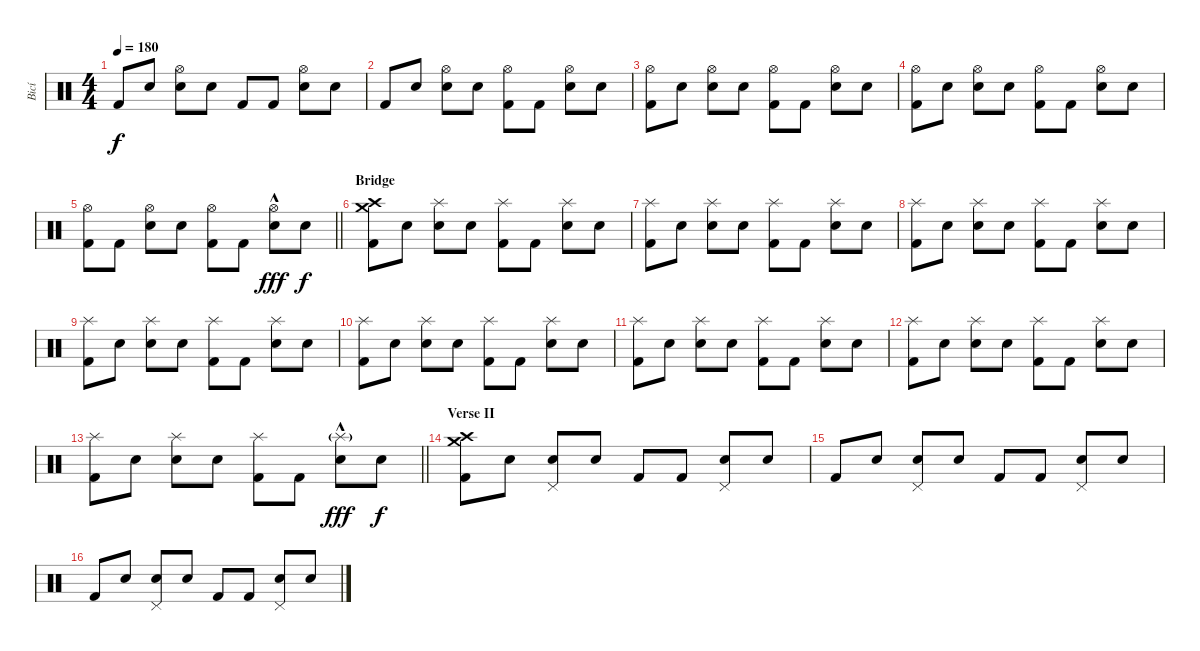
\track ("Bicí" "Bicí") {instrument percussion}
\staff {score}
\articulation defaults
\ts (4 4)
\tempo 180
\clef neutral
\ks c "Kick (hit) 2".8{dy f} "Snare (hit)".8
("Hi-Hat (open)" "Electric Snare (hit)").8 "Snare (hit)".8 "Kick (hit) 2".8 "Kick (hit) 2".8 ("Hi-Hat (open)" "Electric Snare (hit)").8 "Snare (hit)".8 |
"Kick (hit) 2".8 "Snare (hit)".8 ("Hi-Hat (open)" "Electric Snare (hit)").8 "Snare (hit)".8 ("Hi-Hat (open)" "Kick (hit) 2").8 "Kick (hit) 2".8 ("Hi-Hat (open)" "Electric Snare (hit)").8 "Snare (hit)".8 |
("Hi-Hat (open)" "Kick (hit) 2").8 "Snare (hit)".8 ("Hi-Hat (open)" "Electric Snare (hit)").8 "Snare (hit)".8 ("Hi-Hat (open)" "Kick (hit) 2").8 "Kick (hit) 2".8 ("Hi-Hat (open)" "Electric Snare (hit)").8 "Snare (hit)".8 |
("Hi-Hat (open)" "Kick (hit) 2").8 "Snare (hit)".8 ("Hi-Hat (open)" "Electric Snare (hit)").8 "Snare (hit)".8 ("Hi-Hat (open)" "Kick (hit) 2").8 "Kick (hit) 2".8 ("Hi-Hat (open)" "Electric Snare (hit)").8 "Snare (hit)".8 |
\barLineRight lightlight
("Hi-Hat (open)" "Kick (hit) 2").8 "Kick (hit) 2".8 ("Hi-Hat (open)" "Electric Snare (hit)").8 "Snare (hit)".8 ("Hi-Hat (open)" "Kick (hit) 2").8 "Kick (hit) 2".8 ("Hi-Hat (open)" "Electric Snare (hit)"{hac}).8{dy fff} "Snare (hit)".8{dy f} |
\section ("" "Bridge")
("Crash high (hit)" "Crash medium (hit)" "Kick (hit) 2").8 "Snare (hit)".8 ("Splash (hit)" "Electric Snare (hit)").8 "Snare (hit)".8 ("Splash (hit)" "Kick (hit) 2").8 "Kick (hit) 2".8 ("Splash (hit)" "Electric Snare (hit)").8 "Snare (hit)".8 |
("Splash (hit)" "Kick (hit) 2").8 "Snare (hit)".8 ("Splash (hit)" "Electric Snare (hit)").8 "Snare (hit)".8 ("Splash (hit)" "Kick (hit) 2").8 "Kick (hit) 2".8 ("Splash (hit)" "Electric Snare (hit)").8 "Snare (hit)".8 |
("Splash (hit)" "Kick (hit) 2").8 "Snare (hit)".8 ("Splash (hit)" "Electric Snare (hit)").8 "Snare (hit)".8 ("Splash (hit)" "Kick (hit) 2").8 "Kick (hit) 2".8 ("Splash (hit)" "Electric Snare (hit)").8 "Snare (hit)".8 |
("Splash (hit)" "Kick (hit) 2").8 "Snare (hit)".8 ("Splash (hit)" "Electric Snare (hit)").8 "Snare (hit)".8 ("Splash (hit)" "Kick (hit) 2").8 "Kick (hit) 2".8 ("Splash (hit)" "Electric Snare (hit)").8 "Snare (hit)".8 |
("Splash (hit)" "Kick (hit) 2").8 "Snare (hit)".8 ("Splash (hit)" "Electric Snare (hit)").8 "Snare (hit)".8 ("Splash (hit)" "Kick (hit) 2").8 "Kick (hit) 2".8 ("Splash (hit)" "Electric Snare (hit)").8 "Snare (hit)".8 |
("Splash (hit)" "Kick (hit) 2").8 "Snare (hit)".8 ("Splash (hit)" "Electric Snare (hit)").8 "Snare (hit)".8 ("Splash (hit)" "Kick (hit) 2").8 "Kick (hit) 2".8 ("Splash (hit)" "Electric Snare (hit)").8 "Snare (hit)".8 |
("Splash (hit)" "Kick (hit) 2").8 "Snare (hit)".8 ("Splash (hit)" "Electric Snare (hit)").8 "Snare (hit)".8 ("Splash (hit)" "Kick (hit) 2").8 "Kick (hit) 2".8 ("Splash (hit)" "Electric Snare (hit)").8 "Snare (hit)".8 |
\barLineRight lightlight
("Splash (hit)" "Kick (hit) 2").8 "Snare (hit)".8 ("Splash (hit)" "Electric Snare (hit)").8 "Snare (hit)".8 ("Splash (hit)" "Kick (hit) 2").8 "Kick (hit) 2".8 ("Splash (hit)"{g} "Electric Snare (hit)"{hac}).8{dy fff} "Snare (hit)".8{dy f} |
\section ("" "Verse II")
("Crash medium (hit)" "Crash high (hit)" "Kick (hit) 2").8 "Snare (hit)".8 ("Pedal Hi-Hat (hit)" "Electric Snare (hit)").8 "Snare (hit)".8 "Kick (hit) 2".8 "Kick (hit) 2".8 ("Pedal Hi-Hat (hit)" "Electric Snare (hit)").8 "Snare (hit)".8 |
"Kick (hit) 2".8 "Snare (hit)".8 ("Pedal Hi-Hat (hit)" "Electric Snare (hit)").8 "Snare (hit)".8 "Kick (hit) 2".8 "Kick (hit) 2".8 ("Pedal Hi-Hat (hit)" "Electric Snare (hit)").8 "Snare (hit)".8 |
"Kick (hit) 2".8 "Snare (hit)".8 ("Pedal Hi-Hat (hit)" "Electric Snare (hit)").8 "Snare (hit)".8 "Kick (hit) 2".8 "Kick (hit) 2".8 ("Pedal Hi-Hat (hit)" "Electric Snare (hit)").8 "Snare (hit)".8
